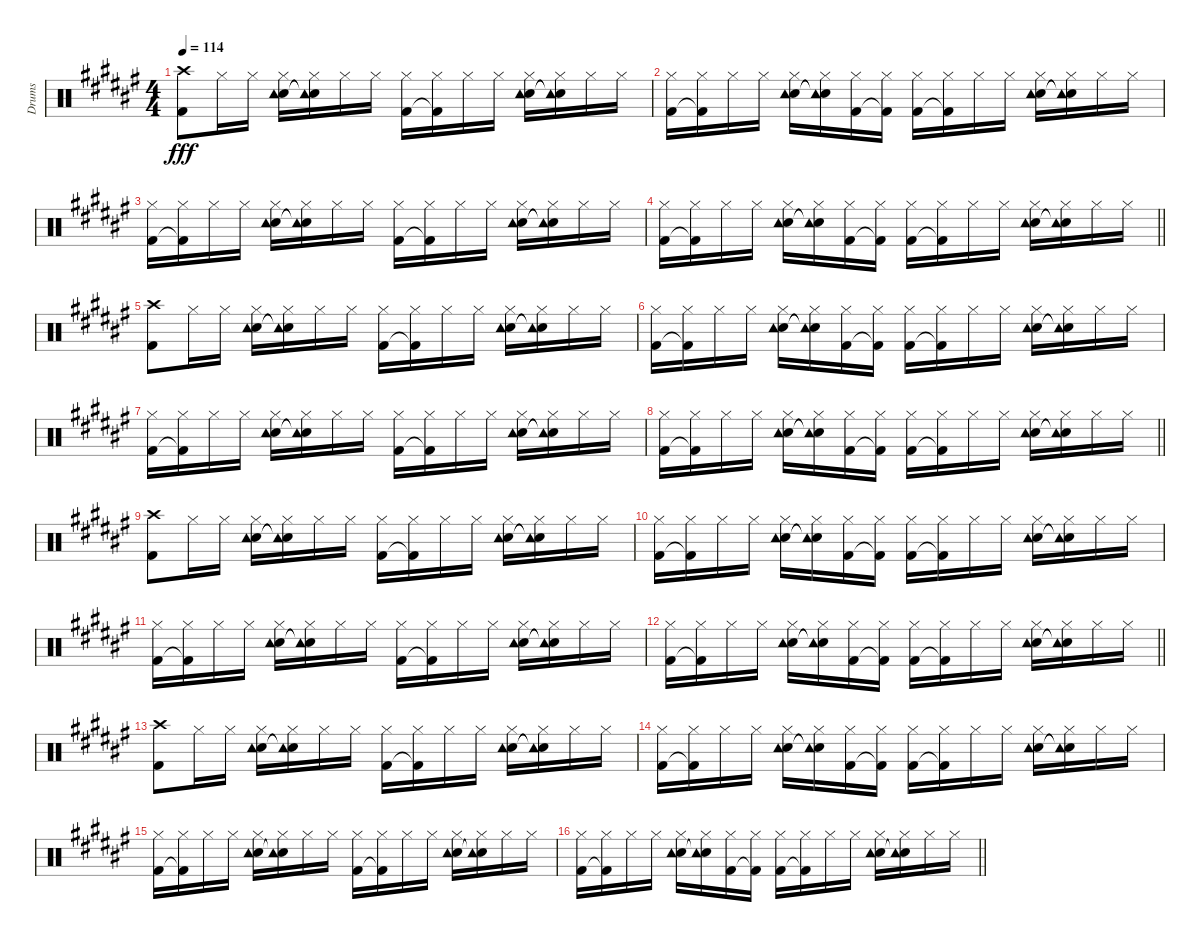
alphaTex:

\track ("Drums" "Drums") {instrument percussion}
\staff {score}
\articulation defaults
\ts (4 4)
\tempo 114
\clef neutral
\ks f#
("Crash high (hit)" "Kick (hit) 2").8{dy fff} "Hi-Hat (closed)".16 "Hi-Hat (closed)".16 ("Hi-Hat (closed)" "Electric Snare (hit)" "Tambourine (hit)").16 ("Hi-Hat (closed)" "Electric Snare (hit)"{t} "Tambourine (hit)"{t}).16 "Hi-Hat (closed)".16 "Hi-Hat (closed)".16 ("Hi-Hat (closed)" "Kick (hit) 2").16 ("Hi-Hat (closed)" "Kick (hit) 2"{t}).16 "Hi-Hat (closed)".16 "Hi-Hat (closed)".16 ("Hi-Hat (closed)" "Electric Snare (hit)" "Tambourine (hit)").16 ("Hi-Hat (closed)" "Electric Snare (hit)"{t} "Tambourine (hit)"{t}).16 "Hi-Hat (closed)".16 "Hi-Hat (closed)".16 |
("Hi-Hat (closed)" "Kick (hit) 2").16 ("Hi-Hat (closed)" "Kick (hit) 2"{t}).16 "Hi-Hat (closed)".16 "Hi-Hat (closed)".16 ("Hi-Hat (closed)" "Electric Snare (hit)" "Tambourine (hit)").16 ("Hi-Hat (closed)" "Electric Snare (hit)"{t} "Tambourine (hit)"{t}).16 ("Hi-Hat (closed)" "Kick (hit) 2").16 ("Hi-Hat (closed)" "Kick (hit) 2"{t}).16 ("Hi-Hat (closed)" "Kick (hit) 2").16 ("Hi-Hat (closed)" "Kick (hit) 2"{t}).16 "Hi-Hat (closed)".16 "Hi-Hat (closed)".16 ("Hi-Hat (closed)" "Electric Snare (hit)" "Tambourine (hit)").16 ("Hi-Hat (closed)" "Electric Snare (hit)"{t} "Tambourine (hit)"{t}).16 "Hi-Hat (closed)".16 "Hi-Hat (closed)".16 |
("Hi-Hat (closed)" "Kick (hit) 2").16 ("Hi-Hat (closed)" "Kick (hit) 2"{t}).16 "Hi-Hat (closed)".16 "Hi-Hat (closed)".16 ("Hi-Hat (closed)" "Electric Snare (hit)" "Tambourine (hit)").16 ("Hi-Hat (closed)" "Electric Snare (hit)"{t} "Tambourine (hit)"{t}).16 "Hi-Hat (closed)".16 "Hi-Hat (closed)".16 ("Hi-Hat (closed)" "Kick (hit) 2").16 ("Hi-Hat (closed)" "Kick (hit) 2"{t}).16 "Hi-Hat (closed)".16 "Hi-Hat (closed)".16 ("Hi-Hat (closed)" "Electric Snare (hit)" "Tambourine (hit)").16 ("Hi-Hat (closed)" "Electric Snare (hit)"{t} "Tambourine (hit)"{t}).16 "Hi-Hat (closed)".16 "Hi-Hat (closed)".16 |
\barLineRight lightlight
("Hi-Hat (closed)" "Kick (hit) 2").16 ("Hi-Hat (closed)" "Kick (hit) 2"{t}).16 "Hi-Hat (closed)".16 "Hi-Hat (closed)".16 ("Hi-Hat (closed)" "Electric Snare (hit)" "Tambourine (hit)").16 ("Hi-Hat (closed)" "Electric Snare (hit)"{t} "Tambourine (hit)"{t}).16 ("Hi-Hat (closed)" "Kick (hit) 2").16 ("Hi-Hat (closed)" "Kick (hit) 2"{t}).16 ("Hi-Hat (closed)" "Kick (hit) 2").16 ("Hi-Hat (closed)" "Kick (hit) 2"{t}).16 "Hi-Hat (closed)".16 "Hi-Hat (closed)".16 ("Hi-Hat (closed)" "Electric Snare (hit)" "Tambourine (hit)").16 ("Hi-Hat (closed)" "Electric Snare (hit)"{t} "Tambourine (hit)"{t}).16 "Hi-Hat (closed)".16 "Hi-Hat (closed)".16 |
("Crash high (hit)" "Kick (hit) 2").8 "Hi-Hat (closed)".16 "Hi-Hat (closed)".16 ("Hi-Hat (closed)" "Electric Snare (hit)" "Tambourine (hit)").16 ("Hi-Hat (closed)" "Electric Snare (hit)"{t} "Tambourine (hit)"{t}).16 "Hi-Hat (closed)".16 "Hi-Hat (closed)".16 ("Hi-Hat (closed)" "Kick (hit) 2").16 ("Hi-Hat (closed)" "Kick (hit) 2"{t}).16 "Hi-Hat (closed)".16 "Hi-Hat (closed)".16 ("Hi-Hat (closed)" "Electric Snare (hit)" "Tambourine (hit)").16 ("Hi-Hat (closed)" "Electric Snare (hit)"{t} "Tambourine (hit)"{t}).16 "Hi-Hat (closed)".16 "Hi-Hat (closed)".16 |
("Hi-Hat (closed)" "Kick (hit) 2").16 ("Hi-Hat (closed)" "Kick (hit) 2"{t}).16 "Hi-Hat (closed)".16 "Hi-Hat (closed)".16 ("Hi-Hat (closed)" "Electric Snare (hit)" "Tambourine (hit)").16 ("Hi-Hat (closed)" "Electric Snare (hit)"{t} "Tambourine (hit)"{t}).16 ("Hi-Hat (closed)" "Kick (hit) 2").16 ("Hi-Hat (closed)" "Kick (hit) 2"{t}).16 ("Hi-Hat (closed)" "Kick (hit) 2").16 ("Hi-Hat (closed)" "Kick (hit) 2"{t}).16 "Hi-Hat (closed)".16 "Hi-Hat (closed)".16 ("Hi-Hat (closed)" "Electric Snare (hit)" "Tambourine (hit)").16 ("Hi-Hat (closed)" "Electric Snare (hit)"{t} "Tambourine (hit)"{t}).16 "Hi-Hat (closed)".16 "Hi-Hat (closed)".16 |
("Hi-Hat (closed)" "Kick (hit) 2").16 ("Hi-Hat (closed)" "Kick (hit) 2"{t}).16 "Hi-Hat (closed)".16 "Hi-Hat (closed)".16 ("Hi-Hat (closed)" "Electric Snare (hit)" "Tambourine (hit)").16 ("Hi-Hat (closed)" "Electric Snare (hit)"{t} "Tambourine (hit)"{t}).16 "Hi-Hat (closed)".16 "Hi-Hat (closed)".16 ("Hi-Hat (closed)" "Kick (hit) 2").16 ("Hi-Hat (closed)" "Kick (hit) 2"{t}).16 "Hi-Hat (closed)".16 "Hi-Hat (closed)".16 ("Hi-Hat (closed)" "Electric Snare (hit)" "Tambourine (hit)").16 ("Hi-Hat (closed)" "Electric Snare (hit)"{t} "Tambourine (hit)"{t}).16 "Hi-Hat (closed)".16 "Hi-Hat (closed)".16 |
\barLineRight lightlight
("Hi-Hat (closed)" "Kick (hit) 2").16 ("Hi-Hat (closed)" "Kick (hit) 2"{t}).16 "Hi-Hat (closed)".16 "Hi-Hat (closed)".16 ("Hi-Hat (closed)" "Electric Snare (hit)" "Tambourine (hit)").16 ("Hi-Hat (closed)" "Electric Snare (hit)"{t} "Tambourine (hit)"{t}).16 ("Hi-Hat (closed)" "Kick (hit) 2").16 ("Hi-Hat (closed)" "Kick (hit) 2"{t}).16 ("Hi-Hat (closed)" "Kick (hit) 2").16 ("Hi-Hat (closed)" "Kick (hit) 2"{t}).16 "Hi-Hat (closed)".16 "Hi-Hat (closed)".16 ("Hi-Hat (closed)" "Electric Snare (hit)" "Tambourine (hit)").16 ("Hi-Hat (closed)" "Electric Snare (hit)"{t} "Tambourine (hit)"{t}).16 "Hi-Hat (closed)".16 "Hi-Hat (closed)".16 |
("Crash high (hit)" "Kick (hit) 2").8 "Hi-Hat (closed)".16 "Hi-Hat (closed)".16 ("Hi-Hat (closed)" "Electric Snare (hit)" "Tambourine (hit)").16 ("Hi-Hat (closed)" "Electric Snare (hit)"{t} "Tambourine (hit)"{t}).16 "Hi-Hat (closed)".16 "Hi-Hat (closed)".16 ("Hi-Hat (closed)" "Kick (hit) 2").16 ("Hi-Hat (closed)" "Kick (hit) 2"{t}).16 "Hi-Hat (closed)".16 "Hi-Hat (closed)".16 ("Hi-Hat (closed)" "Electric Snare (hit)" "Tambourine (hit)").16 ("Hi-Hat (closed)" "Electric Snare (hit)"{t} "Tambourine (hit)"{t}).16 "Hi-Hat (closed)".16 "Hi-Hat (closed)".16 |
("Hi-Hat (closed)" "Kick (hit) 2").16 ("Hi-Hat (closed)" "Kick (hit) 2"{t}).16 "Hi-Hat (closed)".16 "Hi-Hat (closed)".16 ("Hi-Hat (closed)" "Electric Snare (hit)" "Tambourine (hit)").16 ("Hi-Hat (closed)" "Electric Snare (hit)"{t} "Tambourine (hit)"{t}).16 ("Hi-Hat (closed)" "Kick (hit) 2").16 ("Hi-Hat (closed)" "Kick (hit) 2"{t}).16 ("Hi-Hat (closed)" "Kick (hit) 2").16 ("Hi-Hat (closed)" "Kick (hit) 2"{t}).16 "Hi-Hat (closed)".16 "Hi-Hat (closed)".16 ("Hi-Hat (closed)" "Electric Snare (hit)" "Tambourine (hit)").16 ("Hi-Hat (closed)" "Electric Snare (hit)"{t} "Tambourine (hit)"{t}).16 "Hi-Hat (closed)".16 "Hi-Hat (closed)".16 |
("Hi-Hat (closed)" "Kick (hit) 2").16 ("Hi-Hat (closed)" "Kick (hit) 2"{t}).16 "Hi-Hat (closed)".16 "Hi-Hat (closed)".16 ("Hi-Hat (closed)" "Electric Snare (hit)" "Tambourine (hit)").16 ("Hi-Hat (closed)" "Electric Snare (hit)"{t} "Tambourine (hit)"{t}).16 "Hi-Hat (closed)".16 "Hi-Hat (closed)".16 ("Hi-Hat (closed)" "Kick (hit) 2").16 ("Hi-Hat (closed)" "Kick (hit) 2"{t}).16 "Hi-Hat (closed)".16 "Hi-Hat (closed)".16 ("Hi-Hat (closed)" "Electric Snare (hit)" "Tambourine (hit)").16 ("Hi-Hat (closed)" "Electric Snare (hit)"{t} "Tambourine (hit)"{t}).16 "Hi-Hat (closed)".16 "Hi-Hat (closed)".16 |
\barLineRight lightlight
("Hi-Hat (closed)" "Kick (hit) 2").16 ("Hi-Hat (closed)" "Kick (hit) 2"{t}).16 "Hi-Hat (closed)".16 "Hi-Hat (closed)".16 ("Hi-Hat (closed)" "Electric Snare (hit)" "Tambourine (hit)").16 ("Hi-Hat (closed)" "Electric Snare (hit)"{t} "Tambourine (hit)"{t}).16 ("Hi-Hat (closed)" "Kick (hit) 2").16 ("Hi-Hat (closed)" "Kick (hit) 2"{t}).16 ("Hi-Hat (closed)" "Kick (hit) 2").16 ("Hi-Hat (closed)" "Kick (hit) 2"{t}).16 "Hi-Hat (closed)".16 "Hi-Hat (closed)".16 ("Hi-Hat (closed)" "Electric Snare (hit)" "Tambourine (hit)").16 ("Hi-Hat (closed)" "Electric Snare (hit)"{t} "Tambourine (hit)"{t}).16 "Hi-Hat (closed)".16 "Hi-Hat (closed)".16 |
("Crash high (hit)" "Kick (hit) 2").8 "Hi-Hat (closed)".16 "Hi-Hat (closed)".16 ("Hi-Hat (closed)" "Electric Snare (hit)" "Tambourine (hit)").16 ("Hi-Hat (closed)" "Electric Snare (hit)"{t} "Tambourine (hit)"{t}).16 "Hi-Hat (closed)".16 "Hi-Hat (closed)".16 ("Hi-Hat (closed)" "Kick (hit) 2").16 ("Hi-Hat (closed)" "Kick (hit) 2"{t}).16 "Hi-Hat (closed)".16 "Hi-Hat (closed)".16 ("Hi-Hat (closed)" "Electric Snare (hit)" "Tambourine (hit)").16 ("Hi-Hat (closed)" "Electric Snare (hit)"{t} "Tambourine (hit)"{t}).16 "Hi-Hat (closed)".16 "Hi-Hat (closed)".16 |
("Hi-Hat (closed)" "Kick (hit) 2").16 ("Hi-Hat (closed)" "Kick (hit) 2"{t}).16 "Hi-Hat (closed)".16 "Hi-Hat (closed)".16 ("Hi-Hat (closed)" "Electric Snare (hit)" "Tambourine (hit)").16 ("Hi-Hat (closed)" "Electric Snare (hit)"{t} "Tambourine (hit)"{t}).16 ("Hi-Hat (closed)" "Kick (hit) 2").16 ("Hi-Hat (closed)" "Kick (hit) 2"{t}).16 ("Hi-Hat (closed)" "Kick (hit) 2").16 ("Hi-Hat (closed)" "Kick (hit) 2"{t}).16 "Hi-Hat (closed)".16 "Hi-Hat (closed)".16 ("Hi-Hat (closed)" "Electric Snare (hit)" "Tambourine (hit)").16 ("Hi-Hat (closed)" "Electric Snare (hit)"{t} "Tambourine (hit)"{t}).16 "Hi-Hat (closed)".16 "Hi-Hat (closed)".16 |
("Hi-Hat (closed)" "Kick (hit) 2").16 ("Hi-Hat (closed)" "Kick (hit) 2"{t}).16 "Hi-Hat (closed)".16 "Hi-Hat (closed)".16 ("Hi-Hat (closed)" "Electric Snare (hit)" "Tambourine (hit)").16 ("Hi-Hat (closed)" "Electric Snare (hit)"{t} "Tambourine (hit)"{t}).16 "Hi-Hat (closed)".16 "Hi-Hat (closed)".16 ("Hi-Hat (closed)" "Kick (hit) 2").16 ("Hi-Hat (closed)" "Kick (hit) 2"{t}).16 "Hi-Hat (closed)".16 "Hi-Hat (closed)".16 ("Hi-Hat (closed)" "Electric Snare (hit)" "Tambourine (hit)").16 ("Hi-Hat (closed)" "Electric Snare (hit)"{t} "Tambourine (hit)"{t}).16 "Hi-Hat (closed)".16 "Hi-Hat (closed)".16 |
\barLineRight lightlight
("Hi-Hat (closed)" "Kick (hit) 2").16 ("Hi-Hat (closed)" "Kick (hit) 2"{t}).16 "Hi-Hat (closed)".16 "Hi-Hat (closed)".16 ("Hi-Hat (closed)" "Electric Snare (hit)" "Tambourine (hit)").16 ("Hi-Hat (closed)" "Electric Snare (hit)"{t} "Tambourine (hit)"{t}).16 ("Hi-Hat (closed)" "Kick (hit) 2").16 ("Hi-Hat (closed)" "Kick (hit) 2"{t}).16 ("Hi-Hat (closed)" "Kick (hit) 2").16 ("Hi-Hat (closed)" "Kick (hit) 2"{t}).16 "Hi-Hat (closed)".16 "Hi-Hat (closed)".16 ("Hi-Hat (closed)" "Electric Snare (hit)" "Tambourine (hit)").16 ("Hi-Hat (closed)" "Electric Snare (hit)"{t} "Tambourine (hit)"{t}).16 "Hi-Hat (closed)".16 "Hi-Hat (closed)".16
